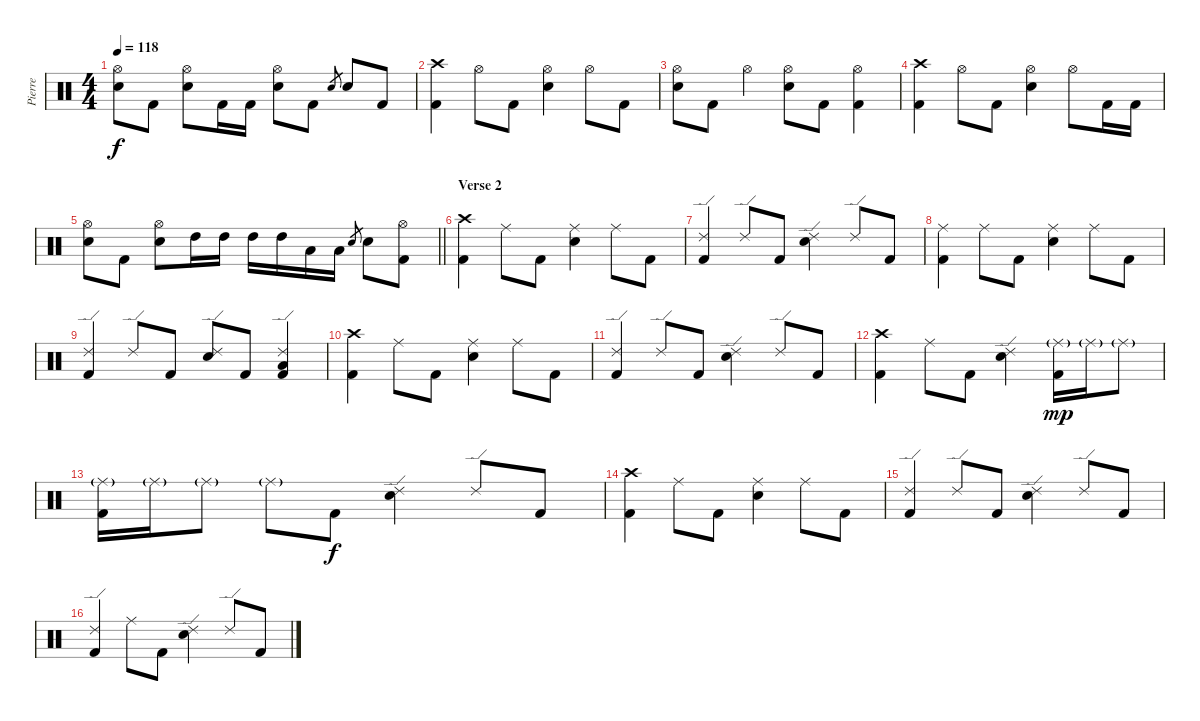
\track ("Pierre" "Pierre") {instrument percussion}
\staff {score}
\articulation defaults
\ts (4 4)
\tempo 118
\clef neutral
\ks c
("Hi-Hat (open)" "Snare (hit) 2").8{dy f} "Kick (hit) 2".8 ("Hi-Hat (open)" "Snare (hit) 2").8 "Kick (hit) 2".16 "Kick (hit) 2".16 ("Hi-Hat (open)" "Snare (hit) 2").8 "Kick (hit) 2".8 "Snare (hit) 2".8{gr} "Snare (hit) 2".8 "Kick (hit) 2".8 |
("Crash high (hit)" "Kick (hit) 2").4 "Hi-Hat (open)".8 "Kick (hit) 2".8 ("Hi-Hat (open)" "Snare (hit) 2").4 "Hi-Hat (open)".8 "Kick (hit) 2".8 |
("Hi-Hat (open)" "Snare (hit) 2").8 "Kick (hit) 2".8 "Hi-Hat (open)".4 ("Hi-Hat (open)" "Snare (hit) 2").8 "Kick (hit) 2".8 ("Hi-Hat (open)" "Kick (hit) 2").4 |
("Crash high (hit)" "Kick (hit) 2").4 "Hi-Hat (open)".8 "Kick (hit) 2".8 ("Hi-Hat (open)" "Snare (hit) 2").4 "Hi-Hat (open)".8 "Kick (hit) 2".16 "Kick (hit) 2".16 |
\barLineRight lightlight
("Hi-Hat (open)" "Snare (hit) 2").8 "Kick (hit) 2".8 ("Hi-Hat (open)" "Snare (hit) 2").8 "High Tom (hit)".16 "High Tom (hit)".16 "High Tom (hit)".16 "High Tom (hit)".16 "Low Tom (hit)".16 "Low Tom (hit)".16 "Snare (hit) 2".8{gr} "Snare (hit) 2".8 ("Hi-Hat (open)" "Kick (hit) 2").8 |
\section ("" "Verse 2")
("Crash high (hit)" "Kick (hit) 2").4 "Ride (middle)".8 "Kick (hit) 2".8 ("Ride (middle)" "Snare (hit) 2").4 "Ride (middle)".8 "Kick (hit) 2".8 |
("Ride (edge) 2" "Kick (hit) 2").4 "Ride (edge) 2".8 "Kick (hit) 2".8 ("Ride (edge) 2" "Snare (hit) 2").4 "Ride (edge) 2".8 "Kick (hit) 2".8 |
("Ride (middle)" "Kick (hit) 2").4 "Ride (middle)".8 "Kick (hit) 2".8 ("Ride (middle)" "Snare (hit) 2").4 "Ride (middle)".8 "Kick (hit) 2".8 |
("Ride (edge) 2" "Kick (hit) 2").4 "Ride (edge) 2".8 "Kick (hit) 2".8 ("Ride (edge) 2" "Snare (hit) 2").8 "Kick (hit) 2".8 ("Ride (edge) 2" "Low Tom (hit)" "Kick (hit) 2").4 |
("Crash high (hit)" "Kick (hit) 2").4 "Ride (middle)".8 "Kick (hit) 2".8 ("Ride (middle)" "Snare (hit) 2").4 "Ride (middle)".8 "Kick (hit) 2".8 |
("Ride (edge) 2" "Kick (hit) 2").4 "Ride (edge) 2".8 "Kick (hit) 2".8 ("Ride (edge) 2" "Snare (hit) 2").4 "Ride (edge) 2".8 "Kick (hit) 2".8 |
("Crash high (hit)" "Kick (hit) 2").4 "Ride (middle)".8 "Kick (hit) 2".8 ("Ride (edge) 2" "Snare (hit) 2").4 ("Ride (middle)"{g} "Kick (hit) 2").16{dy mp} "Ride (middle)"{g}.16 "Ride (middle)"{g}.8 |
("Ride (middle)"{g} "Kick (hit) 2").16 "Ride (middle)"{g}.16 "Ride (middle)"{g}.8 "Ride (middle)"{g}.8 "Kick (hit) 2".8{dy f} ("Ride (edge) 2" "Snare (hit) 2").4 "Ride (edge) 2".8 "Kick (hit) 2".8 |
("Crash high (hit)" "Kick (hit) 2").4 "Ride (middle)".8 "Kick (hit) 2".8 ("Ride (middle)" "Snare (hit) 2").4 "Ride (middle)".8 "Kick (hit) 2".8 |
("Ride (edge) 2" "Kick (hit) 2").4 "Ride (edge) 2".8 "Kick (hit) 2".8 ("Ride (edge) 2" "Snare (hit) 2").4 "Ride (edge) 2".8 "Kick (hit) 2".8 |
("Ride (edge) 2" "Kick (hit) 2").4 "Ride (middle)".8 "Kick (hit) 2".8 ("Ride (edge) 2" "Snare (hit) 2").4 "Ride (edge) 2".8 "Kick (hit) 2".8
